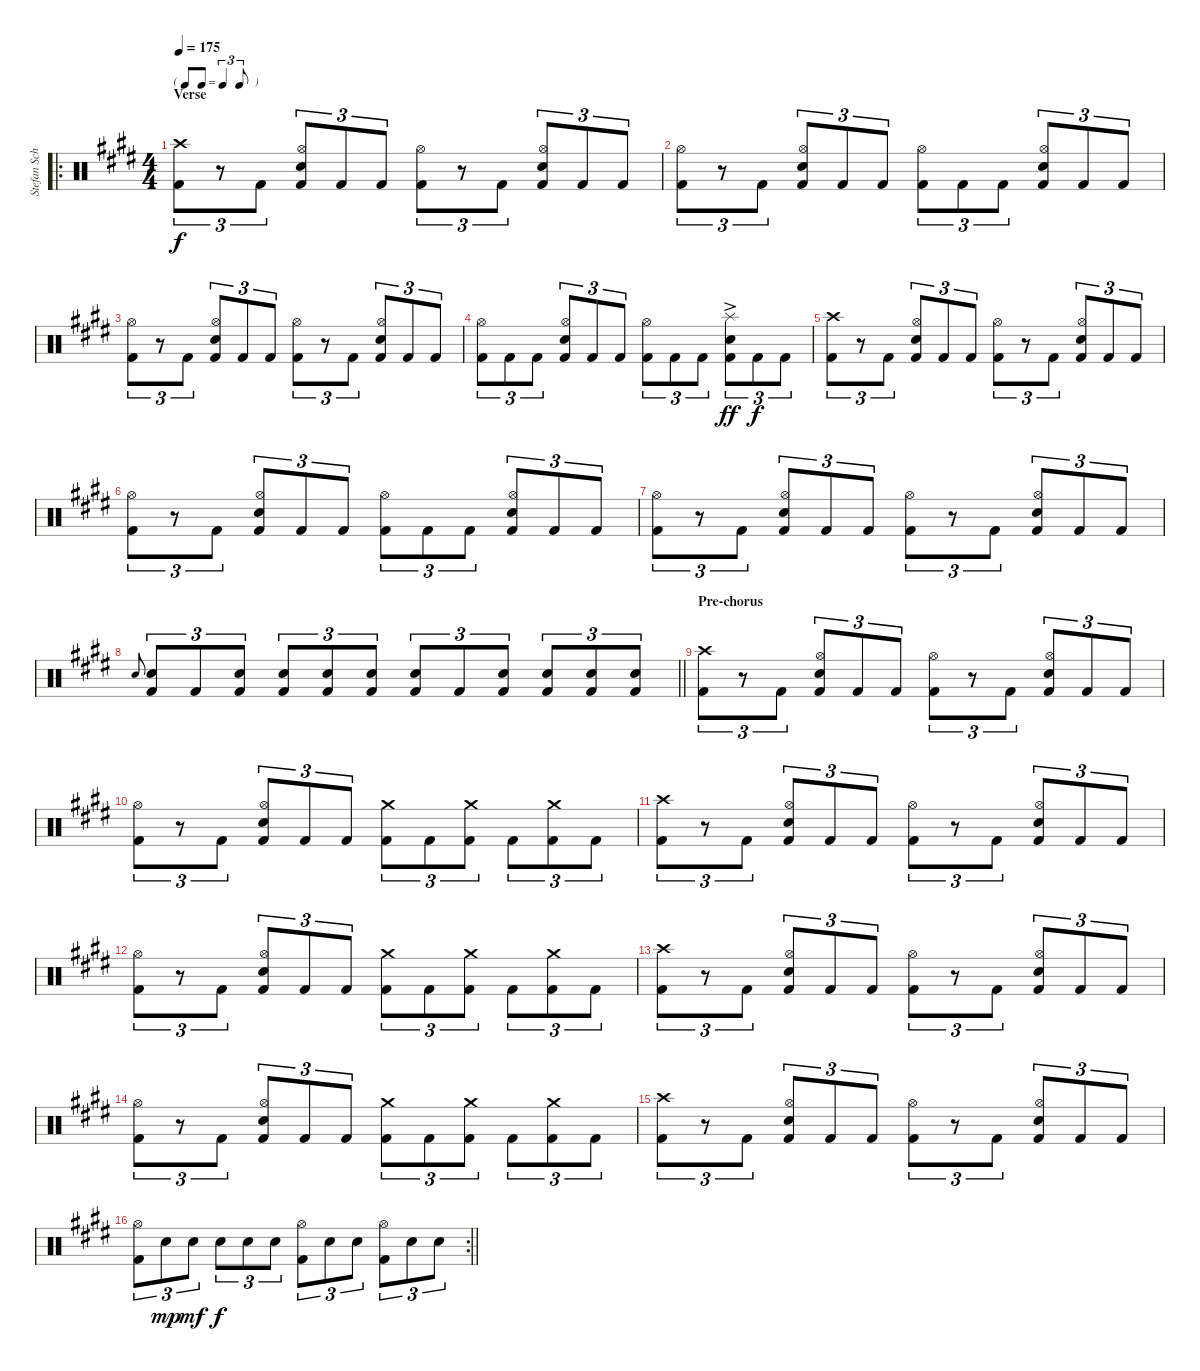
\track ("Stefan Schwarzmann" "Stefan Sch") {instrument percussion}
\staff {score}
\articulation defaults
\ro
\ts (4 4)
\tf triplet8th
\section ("" "Verse")
\tempo 175
\clef neutral
\ks c#minor
("Crash high (hit)" "Kick (hit) 2").8{tu (3 2) dy f} r.8{tu (3 2)} "Kick (hit) 2".8{tu (3 2)} ("Hi-Hat (open)" "Snare (hit) 2" "Kick (hit) 2").8{tu (3 2)} "Kick (hit) 2".8{tu (3 2)} "Kick (hit) 2".8{tu (3 2)} ("Hi-Hat (open)" "Kick (hit) 2").8{tu (3 2)} r.8{tu (3 2)} "Kick (hit) 2".8{tu (3 2)} ("Hi-Hat (open)" "Snare (hit) 2" "Kick (hit) 2").8{tu (3 2)} "Kick (hit) 2".8{tu (3 2)} "Kick (hit) 2".8{tu (3 2)} |
("Hi-Hat (open)" "Kick (hit) 2").8{tu (3 2)} r.8{tu (3 2)} "Kick (hit) 2".8{tu (3 2)} ("Hi-Hat (open)" "Snare (hit) 2" "Kick (hit) 2").8{tu (3 2)} "Kick (hit) 2".8{tu (3 2)} "Kick (hit) 2".8{tu (3 2)} ("Hi-Hat (open)" "Kick (hit) 2").8{tu (3 2)} "Kick (hit) 2".8{tu (3 2)} "Kick (hit) 2".8{tu (3 2)} ("Hi-Hat (open)" "Snare (hit) 2" "Kick (hit) 2").8{tu (3 2)} "Kick (hit) 2".8{tu (3 2)} "Kick (hit) 2".8{tu (3 2)} |
("Hi-Hat (open)" "Kick (hit) 2").8{tu (3 2)} r.8{tu (3 2)} "Kick (hit) 2".8{tu (3 2)} ("Hi-Hat (open)" "Snare (hit) 2" "Kick (hit) 2").8{tu (3 2)} "Kick (hit) 2".8{tu (3 2)} "Kick (hit) 2".8{tu (3 2)} ("Hi-Hat (open)" "Kick (hit) 2").8{tu (3 2)} r.8{tu (3 2)} "Kick (hit) 2".8{tu (3 2)} ("Hi-Hat (open)" "Snare (hit) 2" "Kick (hit) 2").8{tu (3 2)} "Kick (hit) 2".8{tu (3 2)} "Kick (hit) 2".8{tu (3 2)} |
("Hi-Hat (open)" "Kick (hit) 2").8{tu (3 2)} "Kick (hit) 2".8{tu (3 2)} "Kick (hit) 2".8{tu (3 2)} ("Hi-Hat (open)" "Snare (hit) 2" "Kick (hit) 2").8{tu (3 2)} "Kick (hit) 2".8{tu (3 2)} "Kick (hit) 2".8{tu (3 2)} ("Hi-Hat (open)" "Kick (hit) 2").8{tu (3 2)} "Kick (hit) 2".8{tu (3 2)} "Kick (hit) 2".8{tu (3 2)} ("Splash (hit)"{ac} "Snare (hit) 2" "Kick (hit) 2").8{tu (3 2) dy ff} "Kick (hit) 2".8{tu (3 2) dy f} "Kick (hit) 2".8{tu (3 2)} |
("Crash high (hit)" "Kick (hit) 2").8{tu (3 2)} r.8{tu (3 2)} "Kick (hit) 2".8{tu (3 2)} ("Hi-Hat (open)" "Snare (hit) 2" "Kick (hit) 2").8{tu (3 2)} "Kick (hit) 2".8{tu (3 2)} "Kick (hit) 2".8{tu (3 2)} ("Hi-Hat (open)" "Kick (hit) 2").8{tu (3 2)} r.8{tu (3 2)} "Kick (hit) 2".8{tu (3 2)} ("Hi-Hat (open)" "Snare (hit) 2" "Kick (hit) 2").8{tu (3 2)} "Kick (hit) 2".8{tu (3 2)} "Kick (hit) 2".8{tu (3 2)} |
("Hi-Hat (open)" "Kick (hit) 2").8{tu (3 2)} r.8{tu (3 2)} "Kick (hit) 2".8{tu (3 2)} ("Hi-Hat (open)" "Snare (hit) 2" "Kick (hit) 2").8{tu (3 2)} "Kick (hit) 2".8{tu (3 2)} "Kick (hit) 2".8{tu (3 2)} ("Hi-Hat (open)" "Kick (hit) 2").8{tu (3 2)} "Kick (hit) 2".8{tu (3 2)} "Kick (hit) 2".8{tu (3 2)} ("Hi-Hat (open)" "Snare (hit) 2" "Kick (hit) 2").8{tu (3 2)} "Kick (hit) 2".8{tu (3 2)} "Kick (hit) 2".8{tu (3 2)} |
("Hi-Hat (open)" "Kick (hit) 2").8{tu (3 2)} r.8{tu (3 2)} "Kick (hit) 2".8{tu (3 2)} ("Hi-Hat (open)" "Snare (hit) 2" "Kick (hit) 2").8{tu (3 2)} "Kick (hit) 2".8{tu (3 2)} "Kick (hit) 2".8{tu (3 2)} ("Hi-Hat (open)" "Kick (hit) 2").8{tu (3 2)} r.8{tu (3 2)} "Kick (hit) 2".8{tu (3 2)} ("Hi-Hat (open)" "Snare (hit) 2" "Kick (hit) 2").8{tu (3 2)} "Kick (hit) 2".8{tu (3 2)} "Kick (hit) 2".8{tu (3 2)} |
\barLineRight lightlight "Snare (hit) 2".8{gr onbeat}
("Snare (hit) 2" "Kick (hit) 2").8{tu (3 2)} "Kick (hit) 2".8{tu (3 2)} ("Snare (hit) 2" "Kick (hit) 2").8{tu (3 2)} ("Snare (hit) 2" "Kick (hit) 2").8{tu (3 2)} ("Snare (hit) 2" "Kick (hit) 2").8{tu (3 2)} ("Snare (hit) 2" "Kick (hit) 2").8{tu (3 2)} ("Snare (hit) 2" "Kick (hit) 2").8{tu (3 2)} "Kick (hit) 2".8{tu (3 2)} ("Snare (hit) 2" "Kick (hit) 2").8{tu (3 2)} ("Snare (hit) 2" "Kick (hit) 2").8{tu (3 2)} ("Snare (hit) 2" "Kick (hit) 2").8{tu (3 2)} ("Snare (hit) 2" "Kick (hit) 2").8{tu (3 2)} |
\section ("" "Pre-chorus")
("Crash high (hit)" "Kick (hit) 2").8{tu (3 2)} r.8{tu (3 2)} "Kick (hit) 2".8{tu (3 2)} ("Hi-Hat (open)" "Snare (hit) 2" "Kick (hit) 2").8{tu (3 2)} "Kick (hit) 2".8{tu (3 2)} "Kick (hit) 2".8{tu (3 2)} ("Hi-Hat (open)" "Kick (hit) 2").8{tu (3 2)} r.8{tu (3 2)} "Kick (hit) 2".8{tu (3 2)} ("Hi-Hat (open)" "Snare (hit) 2" "Kick (hit) 2").8{tu (3 2)} "Kick (hit) 2".8{tu (3 2)} "Kick (hit) 2".8{tu (3 2)} |
("Hi-Hat (open)" "Kick (hit) 2").8{tu (3 2)} r.8{tu (3 2)} "Kick (hit) 2".8{tu (3 2)} ("Hi-Hat (open)" "Snare (hit) 2" "Kick (hit) 2").8{tu (3 2)} "Kick (hit) 2".8{tu (3 2)} "Kick (hit) 2".8{tu (3 2)} ("Crash medium (hit)" "Kick (hit) 2").8{tu (3 2)} "Kick (hit) 2".8{tu (3 2)} ("Crash medium (hit)" "Kick (hit) 2").8{tu (3 2)} "Kick (hit) 2".8{tu (3 2)} ("Crash medium (hit)" "Kick (hit) 2").8{tu (3 2)} "Kick (hit) 2".8{tu (3 2)} |
("Crash high (hit)" "Kick (hit) 2").8{tu (3 2)} r.8{tu (3 2)} "Kick (hit) 2".8{tu (3 2)} ("Hi-Hat (open)" "Snare (hit) 2" "Kick (hit) 2").8{tu (3 2)} "Kick (hit) 2".8{tu (3 2)} "Kick (hit) 2".8{tu (3 2)} ("Hi-Hat (open)" "Kick (hit) 2").8{tu (3 2)} r.8{tu (3 2)} "Kick (hit) 2".8{tu (3 2)} ("Hi-Hat (open)" "Snare (hit) 2" "Kick (hit) 2").8{tu (3 2)} "Kick (hit) 2".8{tu (3 2)} "Kick (hit) 2".8{tu (3 2)} |
("Hi-Hat (open)" "Kick (hit) 2").8{tu (3 2)} r.8{tu (3 2)} "Kick (hit) 2".8{tu (3 2)} ("Hi-Hat (open)" "Snare (hit) 2" "Kick (hit) 2").8{tu (3 2)} "Kick (hit) 2".8{tu (3 2)} "Kick (hit) 2".8{tu (3 2)} ("Crash medium (hit)" "Kick (hit) 2").8{tu (3 2)} "Kick (hit) 2".8{tu (3 2)} ("Crash medium (hit)" "Kick (hit) 2").8{tu (3 2)} "Kick (hit) 2".8{tu (3 2)} ("Crash medium (hit)" "Kick (hit) 2").8{tu (3 2)} "Kick (hit) 2".8{tu (3 2)} |
("Crash high (hit)" "Kick (hit) 2").8{tu (3 2)} r.8{tu (3 2)} "Kick (hit) 2".8{tu (3 2)} ("Hi-Hat (open)" "Snare (hit) 2" "Kick (hit) 2").8{tu (3 2)} "Kick (hit) 2".8{tu (3 2)} "Kick (hit) 2".8{tu (3 2)} ("Hi-Hat (open)" "Kick (hit) 2").8{tu (3 2)} r.8{tu (3 2)} "Kick (hit) 2".8{tu (3 2)} ("Hi-Hat (open)" "Snare (hit) 2" "Kick (hit) 2").8{tu (3 2)} "Kick (hit) 2".8{tu (3 2)} "Kick (hit) 2".8{tu (3 2)} |
("Hi-Hat (open)" "Kick (hit) 2").8{tu (3 2)} r.8{tu (3 2)} "Kick (hit) 2".8{tu (3 2)} ("Hi-Hat (open)" "Snare (hit) 2" "Kick (hit) 2").8{tu (3 2)} "Kick (hit) 2".8{tu (3 2)} "Kick (hit) 2".8{tu (3 2)} ("Crash medium (hit)" "Kick (hit) 2").8{tu (3 2)} "Kick (hit) 2".8{tu (3 2)} ("Crash medium (hit)" "Kick (hit) 2").8{tu (3 2)} "Kick (hit) 2".8{tu (3 2)} ("Crash medium (hit)" "Kick (hit) 2").8{tu (3 2)} "Kick (hit) 2".8{tu (3 2)} |
("Crash high (hit)" "Kick (hit) 2").8{tu (3 2)} r.8{tu (3 2)} "Kick (hit) 2".8{tu (3 2)} ("Hi-Hat (open)" "Snare (hit) 2" "Kick (hit) 2").8{tu (3 2)} "Kick (hit) 2".8{tu (3 2)} "Kick (hit) 2".8{tu (3 2)} ("Hi-Hat (open)" "Kick (hit) 2").8{tu (3 2)} r.8{tu (3 2)} "Kick (hit) 2".8{tu (3 2)} ("Hi-Hat (open)" "Snare (hit) 2" "Kick (hit) 2").8{tu (3 2)} "Kick (hit) 2".8{tu (3 2)} "Kick (hit) 2".8{tu (3 2)} |
\rc 2
\barLineRight lightlight
("Hi-Hat (open)" "Kick (hit) 2").8{tu (3 2)} "Snare (hit) 2".8{tu (3 2) dy mp} "Snare (hit) 2".8{tu (3 2) dy mf} "Snare (hit) 2".8{tu (3 2) dy f} "Snare (hit) 2".8{tu (3 2)} "Snare (hit) 2".8{tu (3 2)} ("Hi-Hat (open)" "Kick (hit) 2").8{tu (3 2)} "Snare (hit) 2".8{tu (3 2)} "Snare (hit) 2".8{tu (3 2)} ("Hi-Hat (open)" "Kick (hit) 2").8{tu (3 2)} "Snare (hit) 2".8{tu (3 2)} "Snare (hit) 2".8{tu (3 2)}
